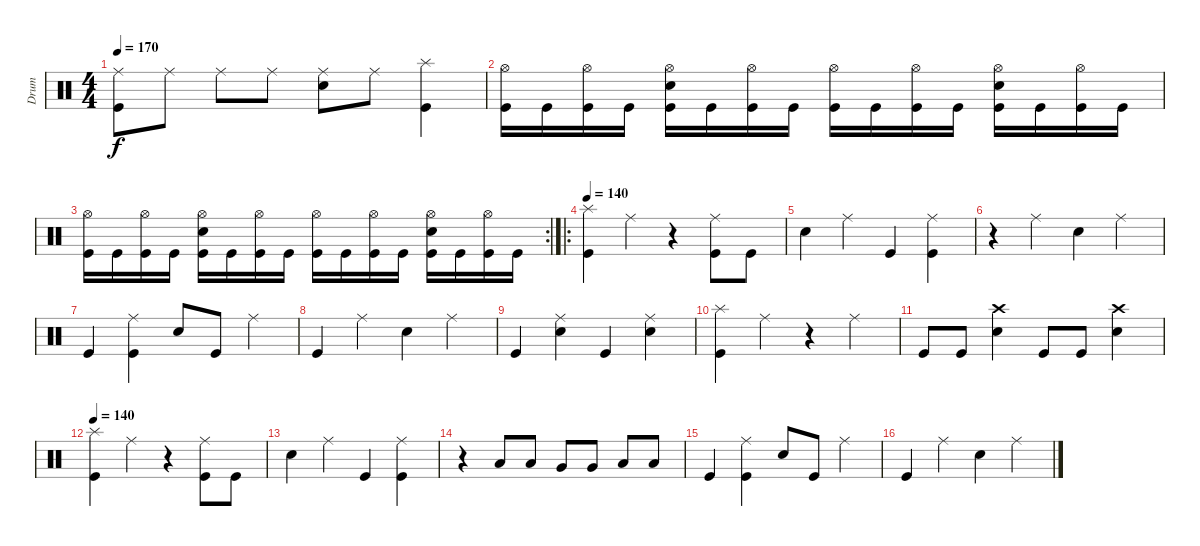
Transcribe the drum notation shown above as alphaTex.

\track ("Drum" "Drum") {instrument percussion}
\staff {score}
\articulation defaults
\ts (4 4)
\tempo 170
\clef neutral
\ks c
("Kick (hit)" "Ride (middle)").8{dy f} "Ride (middle)".8 "Ride (middle)".8 "Ride (middle)".8 ("Electric Snare (hit)" "Ride (middle)").8 "Ride (middle)".8 ("Kick (hit)" "Splash (hit)").4 |
("Kick (hit)" "Hi-Hat (open)").16 "Kick (hit)".16 ("Kick (hit)" "Hi-Hat (open)").16 "Kick (hit)".16 ("Kick (hit)" "Hi-Hat (open)" "Electric Snare (hit)").16 "Kick (hit)".16 ("Kick (hit)" "Hi-Hat (open)").16 "Kick (hit)".16 ("Kick (hit)" "Hi-Hat (open)").16 "Kick (hit)".16 ("Kick (hit)" "Hi-Hat (open)").16 "Kick (hit)".16 ("Kick (hit)" "Hi-Hat (open)" "Electric Snare (hit)").16 "Kick (hit)".16 ("Kick (hit)" "Hi-Hat (open)").16 "Kick (hit)".16 |
\rc 2
("Kick (hit)" "Hi-Hat (open)").16 "Kick (hit)".16 ("Kick (hit)" "Hi-Hat (open)").16 "Kick (hit)".16 ("Kick (hit)" "Hi-Hat (open)" "Electric Snare (hit)").16 "Kick (hit)".16 ("Kick (hit)" "Hi-Hat (open)").16 "Kick (hit)".16 ("Kick (hit)" "Hi-Hat (open)").16 "Kick (hit)".16 ("Kick (hit)" "Hi-Hat (open)").16 "Kick (hit)".16 ("Kick (hit)" "Hi-Hat (open)" "Electric Snare (hit)").16 "Kick (hit)".16 ("Kick (hit)" "Hi-Hat (open)").16 "Kick (hit)".16 |
\ro
\tempo 140
("Kick (hit)" "Splash (hit)").4 "Ride (middle)".4 r.4 ("Kick (hit)" "Ride (middle)").8 "Kick (hit)".8 |
"Electric Snare (hit)".4 "Ride (middle)".4 "Kick (hit)".4 ("Kick (hit)" "Ride (middle)").4 |
r.4 "Ride (middle)".4 "Electric Snare (hit)".4 "Ride (middle)".4 |
"Kick (hit)".4 ("Kick (hit)" "Ride (middle)").4 "Electric Snare (hit)".8 "Kick (hit)".8 "Ride (middle)".4 |
"Kick (hit)".4 "Ride (middle)".4 "Electric Snare (hit)".4 "Ride (middle)".4 |
"Kick (hit)".4 ("Electric Snare (hit)" "Ride (middle)").4 "Kick (hit)".4 ("Electric Snare (hit)" "Ride (middle)").4 |
("Kick (hit)" "Splash (hit)").4 "Ride (middle)".4 r.4 "Ride (middle)".4 |
"Kick (hit)".8 "Kick (hit)".8 ("Electric Snare (hit)" "Crash high (hit)").4 "Kick (hit)".8 "Kick (hit)".8 ("Electric Snare (hit)" "Crash high (hit)").4 |
\tempo 140
("Kick (hit)" "Splash (hit)").4 "Ride (middle)".4 r.4 ("Kick (hit)" "Ride (middle)").8 "Kick (hit)".8 |
"Electric Snare (hit)".4 "Ride (middle)".4 "Kick (hit)".4 ("Kick (hit)" "Ride (middle)").4 |
r.4 "Low Tom (hit)".8 "Low Tom (hit)".8 "Very Low Tom (hit)".8 "Very Low Tom (hit)".8 "Low Floor Tom (hit)".8 "Low Floor Tom (hit)".8 |
"Kick (hit)".4 ("Kick (hit)" "Ride (middle)").4 "Electric Snare (hit)".8 "Kick (hit)".8 "Ride (middle)".4 |
"Kick (hit)".4 "Ride (middle)".4 "Electric Snare (hit)".4 "Ride (middle)".4
